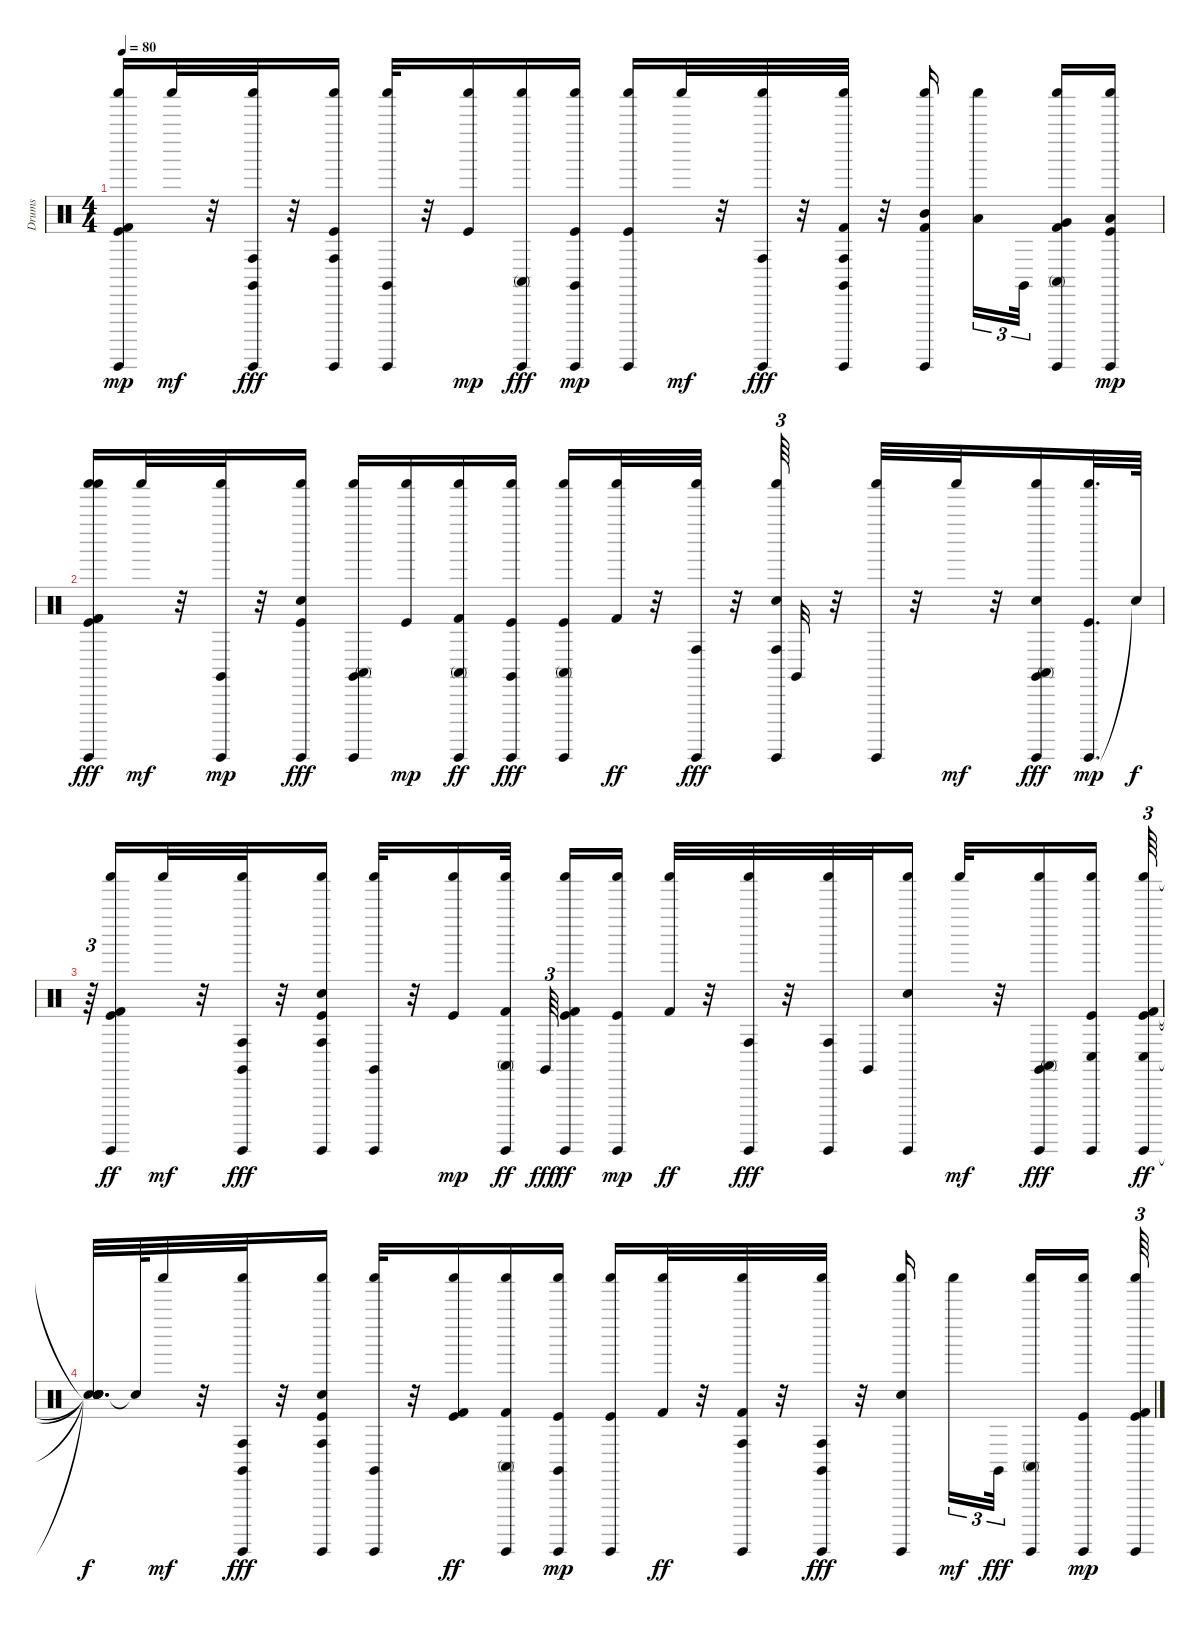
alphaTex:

\track ("Drums" "Drums") {instrument percussion}
\staff {score}
\articulation defaults
\ts (4 4)
\tempo 80
\clef neutral
\ks c
("Kick (hit) 2" "Guiro (hit)" "Shaker (hit)" "Kick (hit)").16{dy mp} "Shaker (hit)".32{dy mf} r.32 ("Claves (hit)" "Guiro (hit)" "Shaker (hit)" "Conga high (hit)").32{dy fff} r.32 ("Guiro (hit)" "Shaker (hit)" "Kick (hit)" "Conga high (hit)").16 ("Claves (hit)" "Guiro (hit)" "Shaker (hit)").32 r.32 ("Shaker (hit)" "Kick (hit)").16{dy mp} ("Guiro (hit)" "Shaker (hit)" "Conga high (mute)").16{dy fff} ("Claves (hit)" "Guiro (hit)" "Shaker (hit)" "Kick (hit)").16{dy mp} ("Guiro (hit)" "Shaker (hit)" "Kick (hit)").16 "Shaker (hit)".32{dy mf} r.32 ("Guiro (hit)" "Shaker (hit)" "Conga high (hit)").32{dy fff} r.32 ("Claves (hit)" "Kick (hit) 2" "Guiro (hit)" "Shaker (hit)" "Conga high (hit)").32 r.32 ("Mid Tom (hit)" "Kick (hit) 2" "Guiro (hit)" "Shaker (hit)").16 ("Shaker (hit)" "Low Tom (hit)").16{tu (3 2)} "Claves (hit)".32{tu (3 2)} ("Kick (hit) 2" "Guiro (hit)" "Shaker (hit)" "Conga high (mute)" "Very Low Tom (hit)").16 ("Low Floor Tom (hit)" "Guiro (hit)" "Shaker (hit)" "Kick (hit)").16{dy mp} |
("Guiro (hit)" "Shaker (hit)" "Kick (hit)" "Kick (hit) 2" "Kick (hit) 2" "Shaker (hit)").16{dy fff} "Shaker (hit)".32{dy mf} r.32 ("Claves (hit)" "Guiro (hit)" "Shaker (hit)").32{dy mp} r.32 ("Guiro (hit)" "Shaker (hit)" "Kick (hit)" "Electric Snare (hit)").16{dy fff} ("Claves (hit)" "Guiro (hit)" "Shaker (hit)" "Conga high (mute)").16 ("Shaker (hit)" "Kick (hit)").16{dy mp} ("Guiro (hit)" "Shaker (hit)" "Conga high (mute)" "Kick (hit) 2").16{dy ff} ("Guiro (hit)" "Shaker (hit)" "Kick (hit)" "Claves (hit)").16{dy fff} ("Guiro (hit)" "Shaker (hit)" "Kick (hit)" "Conga high (mute)").16 ("Shaker (hit)" "Kick (hit) 2").32{dy ff} r.32 ("Guiro (hit)" "Shaker (hit)" "Conga high (hit)").32{dy fff} r.32 ("Guiro (hit)" "Shaker (hit)" "Conga high (hit)" "Electric Snare (hit)").64{tu (3 2)} "Claves (hit)".32 r.32 ("Guiro (hit)" "Shaker (hit)").32 r.32 "Shaker (hit)".32{dy mf} r.32 ("Guiro (hit)" "Shaker (hit)" "Conga high (mute)" "Claves (hit)" "Electric Snare (hit)").16{dy fff} ("Guiro (hit)" "Shaker (hit)" "Kick (hit)").32{d dy mp} "Snare (hit)"{t}.64{dy f} |
r.64{tu (3 2)} ("Guiro (hit)" "Shaker (hit)" "Kick (hit)" "Kick (hit) 2").16{dy ff} "Shaker (hit)".32{dy mf} r.32 ("Guiro (hit)" "Shaker (hit)" "Conga high (hit)" "Claves (hit)").32{dy fff} r.32 ("Guiro (hit)" "Shaker (hit)" "Kick (hit)" "Conga high (hit)" "Electric Snare (hit)").16 ("Claves (hit)" "Guiro (hit)" "Shaker (hit)").32 r.32 ("Shaker (hit)" "Kick (hit)").16{dy mp} ("Guiro (hit)" "Shaker (hit)" "Conga high (mute)" "Kick (hit) 2").32{dy ff} "Claves (hit)".64{tu (3 2) dy fff} ("Guiro (hit)" "Shaker (hit)" "Kick (hit)" "Kick (hit) 2").16{dy ff} ("Guiro (hit)" "Shaker (hit)" "Kick (hit)").16{dy mp} ("Shaker (hit)" "Kick (hit) 2").32{dy ff} r.32 ("Guiro (hit)" "Shaker (hit)" "Conga high (hit)").32{dy fff} r.32 ("Guiro (hit)" "Shaker (hit)" "Conga high (hit)").32 "Claves (hit)".32 ("Guiro (hit)" "Shaker (hit)" "Electric Snare (hit)").16 "Shaker (hit)".32{dy mf} r.32 ("Claves (hit)" "Guiro (hit)" "Shaker (hit)" "Conga high (mute)").16{dy fff} ("Guiro (hit)" "Shaker (hit)" "Kick (hit)" "Conga low (hit)").16 ("Guiro (hit)" "Shaker (hit)" "Kick (hit)" "Conga low (hit)" "Kick (hit) 2").64{tu (3 2) dy ff} |
("Snare (hit)"{t} "Snare (hit)"{t} "Snare (hit)"{t} "Snare (hit)"{t} "Snare (hit)"{t}).32{d dy f} "Snare (hit)"{t}.64 "Shaker (hit)".32{dy mf} r.32 ("Claves (hit)" "Guiro (hit)" "Shaker (hit)" "Conga high (hit)").32{dy fff} r.32 ("Guiro (hit)" "Shaker (hit)" "Kick (hit)" "Conga high (hit)" "Electric Snare (hit)").16 ("Claves (hit)" "Guiro (hit)" "Shaker (hit)").32 r.32 ("Shaker (hit)" "Kick (hit)" "Kick (hit) 2").16{dy ff} ("Guiro (hit)" "Shaker (hit)" "Conga high (mute)" "Kick (hit) 2").16 ("Claves (hit)" "Guiro (hit)" "Shaker (hit)" "Kick (hit)").16{dy mp} ("Guiro (hit)" "Shaker (hit)" "Kick (hit)").16 ("Shaker (hit)" "Kick (hit) 2").32{dy ff} r.32 ("Guiro (hit)" "Shaker (hit)" "Conga high (hit)" "Kick (hit) 2").32 r.32 ("Claves (hit)" "Guiro (hit)" "Shaker (hit)" "Conga high (hit)").32{dy fff} r.32 ("Guiro (hit)" "Shaker (hit)" "Electric Snare (hit)").16 "Shaker (hit)".16{tu (3 2) dy mf} "Claves (hit)".32{tu (3 2) dy fff} ("Guiro (hit)" "Shaker (hit)" "Conga high (mute)").16 ("Guiro (hit)" "Shaker (hit)" "Kick (hit)").16{dy mp} ("Kick (hit) 2" "Guiro (hit)" "Shaker (hit)" "Kick (hit)").64{tu (3 2)}
